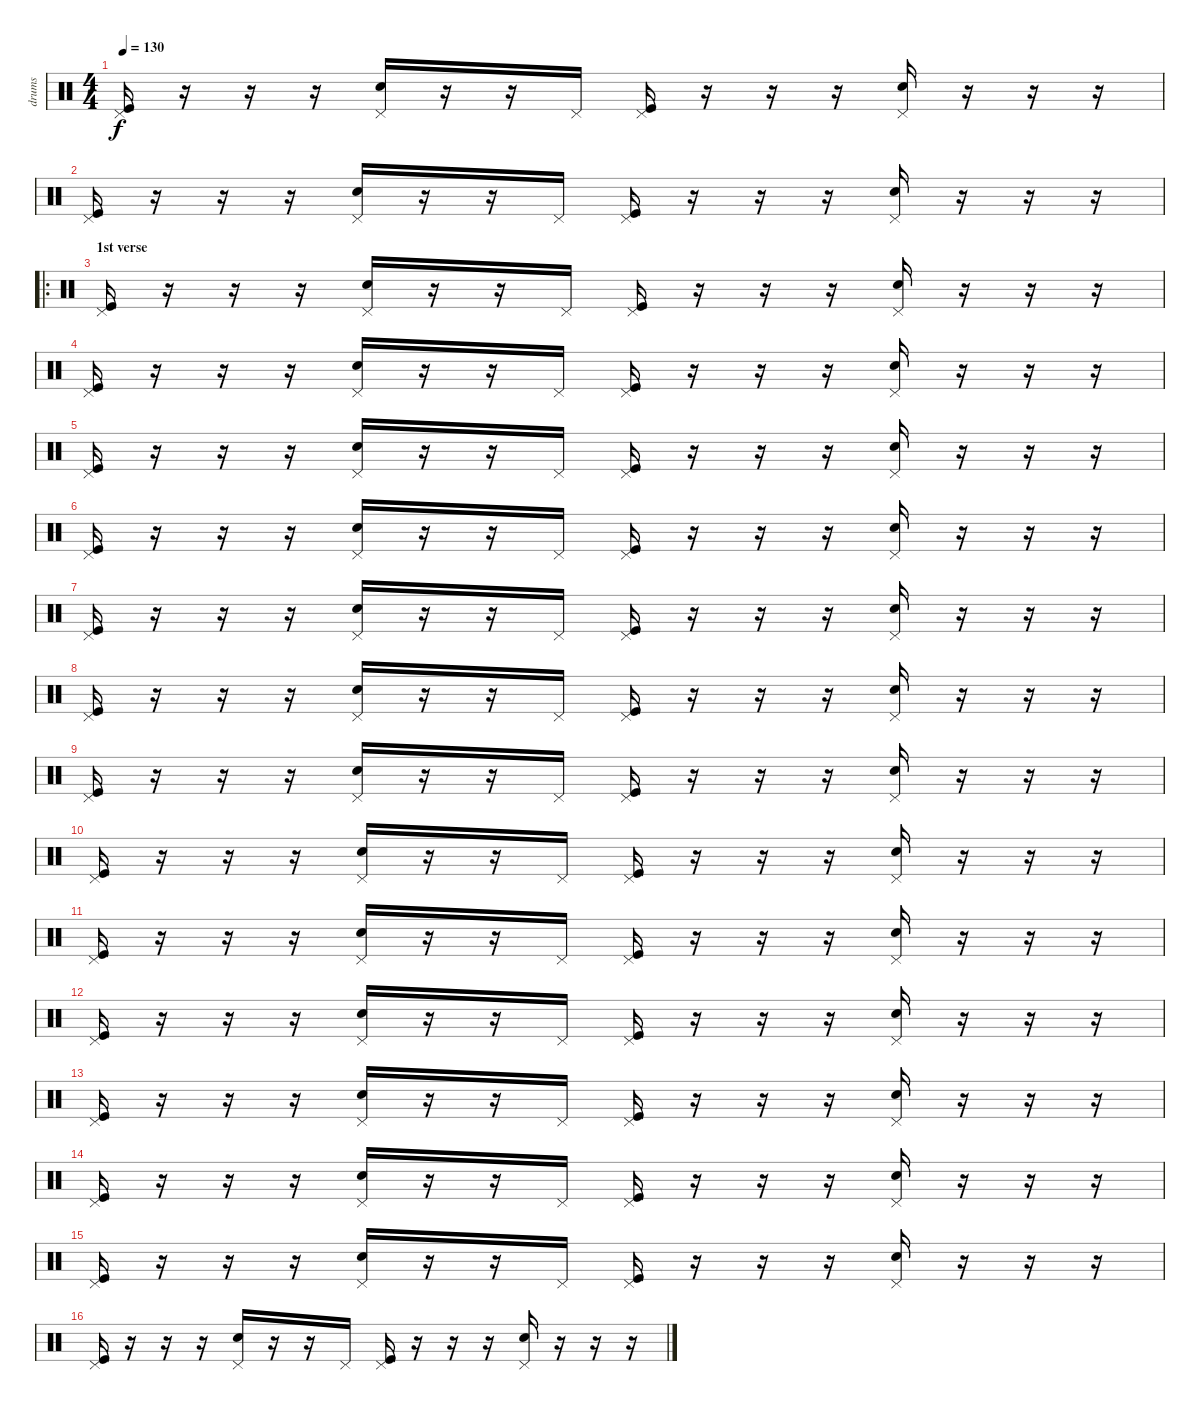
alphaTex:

\track ("drums" "drums") {instrument percussion}
\staff {score}
\articulation defaults
\ts (4 4)
\tempo 130
\clef neutral
\ks c
("Kick (hit)" "Pedal Hi-Hat (hit)").16{dy f} r.16 r.16 r.16 ("Electric Snare (hit)" "Pedal Hi-Hat (hit)").16 r.16 r.16 "Pedal Hi-Hat (hit)".16 ("Kick (hit)" "Pedal Hi-Hat (hit)").16 r.16 r.16 r.16 ("Electric Snare (hit)" "Pedal Hi-Hat (hit)").16 r.16 r.16 r.16 |
("Kick (hit)" "Pedal Hi-Hat (hit)").16 r.16 r.16 r.16 ("Electric Snare (hit)" "Pedal Hi-Hat (hit)").16 r.16 r.16 "Pedal Hi-Hat (hit)".16 ("Kick (hit)" "Pedal Hi-Hat (hit)").16 r.16 r.16 r.16 ("Electric Snare (hit)" "Pedal Hi-Hat (hit)").16 r.16 r.16 r.16 |
\ro
\section ("" "1st verse")
("Kick (hit)" "Pedal Hi-Hat (hit)").16 r.16 r.16 r.16 ("Electric Snare (hit)" "Pedal Hi-Hat (hit)").16 r.16 r.16 "Pedal Hi-Hat (hit)".16 ("Kick (hit)" "Pedal Hi-Hat (hit)").16 r.16 r.16 r.16 ("Electric Snare (hit)" "Pedal Hi-Hat (hit)").16 r.16 r.16 r.16 |
("Kick (hit)" "Pedal Hi-Hat (hit)").16 r.16 r.16 r.16 ("Electric Snare (hit)" "Pedal Hi-Hat (hit)").16 r.16 r.16 "Pedal Hi-Hat (hit)".16 ("Kick (hit)" "Pedal Hi-Hat (hit)").16 r.16 r.16 r.16 ("Electric Snare (hit)" "Pedal Hi-Hat (hit)").16 r.16 r.16 r.16 |
("Kick (hit)" "Pedal Hi-Hat (hit)").16 r.16 r.16 r.16 ("Electric Snare (hit)" "Pedal Hi-Hat (hit)").16 r.16 r.16 "Pedal Hi-Hat (hit)".16 ("Kick (hit)" "Pedal Hi-Hat (hit)").16 r.16 r.16 r.16 ("Electric Snare (hit)" "Pedal Hi-Hat (hit)").16 r.16 r.16 r.16 |
("Kick (hit)" "Pedal Hi-Hat (hit)").16 r.16 r.16 r.16 ("Electric Snare (hit)" "Pedal Hi-Hat (hit)").16 r.16 r.16 "Pedal Hi-Hat (hit)".16 ("Kick (hit)" "Pedal Hi-Hat (hit)").16 r.16 r.16 r.16 ("Electric Snare (hit)" "Pedal Hi-Hat (hit)").16 r.16 r.16 r.16 |
("Kick (hit)" "Pedal Hi-Hat (hit)").16 r.16 r.16 r.16 ("Electric Snare (hit)" "Pedal Hi-Hat (hit)").16 r.16 r.16 "Pedal Hi-Hat (hit)".16 ("Kick (hit)" "Pedal Hi-Hat (hit)").16 r.16 r.16 r.16 ("Electric Snare (hit)" "Pedal Hi-Hat (hit)").16 r.16 r.16 r.16 |
("Kick (hit)" "Pedal Hi-Hat (hit)").16 r.16 r.16 r.16 ("Electric Snare (hit)" "Pedal Hi-Hat (hit)").16 r.16 r.16 "Pedal Hi-Hat (hit)".16 ("Kick (hit)" "Pedal Hi-Hat (hit)").16 r.16 r.16 r.16 ("Electric Snare (hit)" "Pedal Hi-Hat (hit)").16 r.16 r.16 r.16 |
("Kick (hit)" "Pedal Hi-Hat (hit)").16 r.16 r.16 r.16 ("Electric Snare (hit)" "Pedal Hi-Hat (hit)").16 r.16 r.16 "Pedal Hi-Hat (hit)".16 ("Kick (hit)" "Pedal Hi-Hat (hit)").16 r.16 r.16 r.16 ("Electric Snare (hit)" "Pedal Hi-Hat (hit)").16 r.16 r.16 r.16 |
("Kick (hit)" "Pedal Hi-Hat (hit)").16 r.16 r.16 r.16 ("Electric Snare (hit)" "Pedal Hi-Hat (hit)").16 r.16 r.16 "Pedal Hi-Hat (hit)".16 ("Kick (hit)" "Pedal Hi-Hat (hit)").16 r.16 r.16 r.16 ("Electric Snare (hit)" "Pedal Hi-Hat (hit)").16 r.16 r.16 r.16 |
("Kick (hit)" "Pedal Hi-Hat (hit)").16 r.16 r.16 r.16 ("Electric Snare (hit)" "Pedal Hi-Hat (hit)").16 r.16 r.16 "Pedal Hi-Hat (hit)".16 ("Kick (hit)" "Pedal Hi-Hat (hit)").16 r.16 r.16 r.16 ("Electric Snare (hit)" "Pedal Hi-Hat (hit)").16 r.16 r.16 r.16 |
("Kick (hit)" "Pedal Hi-Hat (hit)").16 r.16 r.16 r.16 ("Electric Snare (hit)" "Pedal Hi-Hat (hit)").16 r.16 r.16 "Pedal Hi-Hat (hit)".16 ("Kick (hit)" "Pedal Hi-Hat (hit)").16 r.16 r.16 r.16 ("Electric Snare (hit)" "Pedal Hi-Hat (hit)").16 r.16 r.16 r.16 |
("Kick (hit)" "Pedal Hi-Hat (hit)").16 r.16 r.16 r.16 ("Electric Snare (hit)" "Pedal Hi-Hat (hit)").16 r.16 r.16 "Pedal Hi-Hat (hit)".16 ("Kick (hit)" "Pedal Hi-Hat (hit)").16 r.16 r.16 r.16 ("Electric Snare (hit)" "Pedal Hi-Hat (hit)").16 r.16 r.16 r.16 |
("Kick (hit)" "Pedal Hi-Hat (hit)").16 r.16 r.16 r.16 ("Electric Snare (hit)" "Pedal Hi-Hat (hit)").16 r.16 r.16 "Pedal Hi-Hat (hit)".16 ("Kick (hit)" "Pedal Hi-Hat (hit)").16 r.16 r.16 r.16 ("Electric Snare (hit)" "Pedal Hi-Hat (hit)").16 r.16 r.16 r.16 |
("Kick (hit)" "Pedal Hi-Hat (hit)").16 r.16 r.16 r.16 ("Electric Snare (hit)" "Pedal Hi-Hat (hit)").16 r.16 r.16 "Pedal Hi-Hat (hit)".16 ("Kick (hit)" "Pedal Hi-Hat (hit)").16 r.16 r.16 r.16 ("Electric Snare (hit)" "Pedal Hi-Hat (hit)").16 r.16 r.16 r.16 |
("Kick (hit)" "Pedal Hi-Hat (hit)").16 r.16 r.16 r.16 ("Electric Snare (hit)" "Pedal Hi-Hat (hit)").16 r.16 r.16 "Pedal Hi-Hat (hit)".16 ("Kick (hit)" "Pedal Hi-Hat (hit)").16 r.16 r.16 r.16 ("Electric Snare (hit)" "Pedal Hi-Hat (hit)").16 r.16 r.16 r.16
